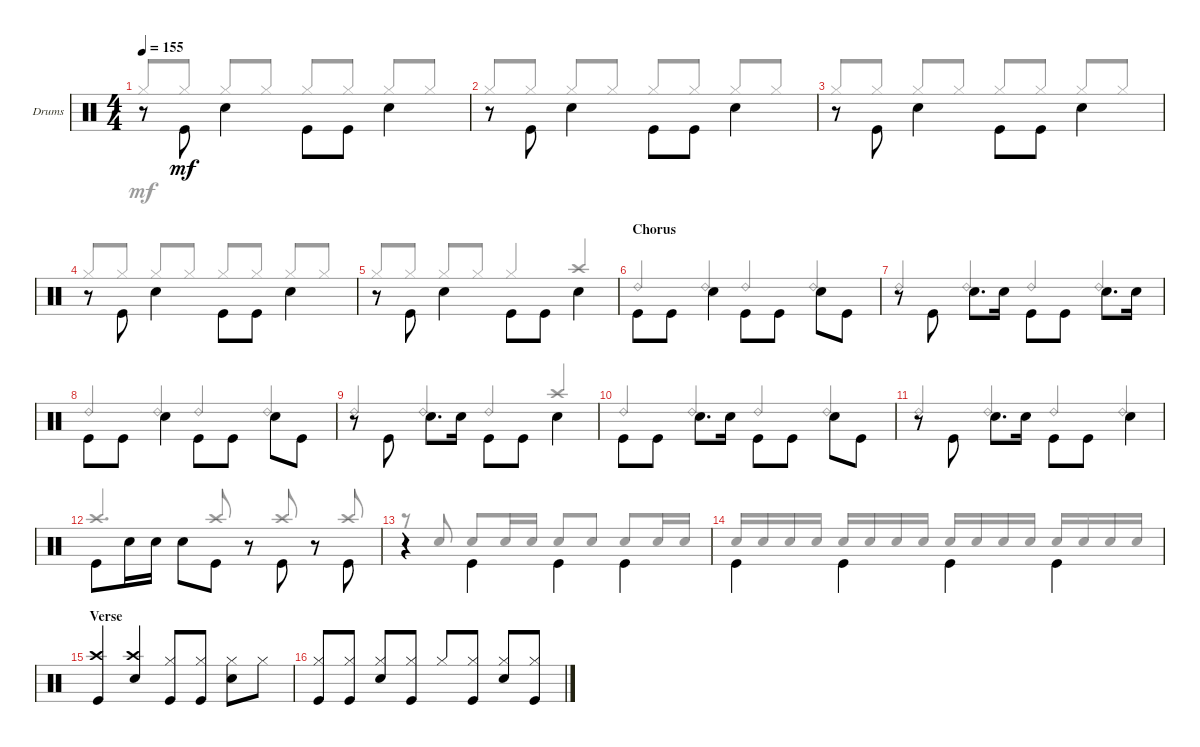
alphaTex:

\defaultSystemsLayout 4
\bracketExtendMode groupsimilarinstruments
\firstSystemTrackNameOrientation horizontal
\otherSystemsTrackNameOrientation horizontal
\track ("PETER CRISS" "Drums") {instrument percussion}
\staff {score}
\articulation defaults
\voice
\ts (4 4)
\tempo 155
\clef neutral
\ks c
r.8{dy mf} "Kick (hit)".8{beam invert} "Snare (hit) 2".4{beam invert} "Kick (hit)".8{beam invert} "Kick (hit)".8 "Snare (hit) 2".4{beam invert} |
r.8 "Kick (hit)".8{beam invert} "Snare (hit) 2".4{beam invert} "Kick (hit)".8{beam invert} "Kick (hit)".8 "Snare (hit) 2".4{beam invert} |
r.8 "Kick (hit)".8{beam invert} "Snare (hit) 2".4{beam invert} "Kick (hit)".8{beam invert} "Kick (hit)".8 "Snare (hit) 2".4{beam invert} |
r.8 "Kick (hit)".8{beam invert} "Snare (hit) 2".4{beam invert} "Kick (hit)".8{beam invert} "Kick (hit)".8 "Snare (hit) 2".4{beam invert} |
r.8 "Kick (hit)".8{beam invert} "Snare (hit) 2".4{beam invert} "Kick (hit)".8{beam invert} "Kick (hit)".8 "Snare (hit) 2".4{beam invert} |
\section ("" "Chorus")
"Kick (hit)".8{beam invert} "Kick (hit)".8 "Snare (hit) 2".4{beam invert} "Kick (hit)".8{beam invert} "Kick (hit)".8 "Snare (hit) 2".8{beam invert} "Kick (hit)".8 |
r.8 "Kick (hit)".8{beam invert} "Snare (hit) 2".8{d beam invert} "Snare (hit) 2".16 "Kick (hit)".8{beam invert} "Kick (hit)".8 "Snare (hit) 2".8{d beam invert} "Snare (hit) 2".16 |
"Kick (hit)".8{beam invert} "Kick (hit)".8 "Snare (hit) 2".4{beam invert} "Kick (hit)".8{beam invert} "Kick (hit)".8 "Snare (hit) 2".8{beam invert} "Kick (hit)".8 |
r.8 "Kick (hit)".8{beam invert} "Snare (hit) 2".8{d beam invert} "Snare (hit) 2".16 "Kick (hit)".8{beam invert} "Kick (hit)".8 "Snare (hit) 2".4{beam invert} |
"Kick (hit)".8{beam invert} "Kick (hit)".8 "Snare (hit) 2".8{d beam invert} "Snare (hit) 2".16 "Kick (hit)".8{beam invert} "Kick (hit)".8 "Snare (hit) 2".8{beam invert} "Kick (hit)".8 |
r.8 "Kick (hit)".8{beam invert} "Snare (hit) 2".8{d beam invert} "Snare (hit) 2".16 "Kick (hit)".8{beam invert} "Kick (hit)".8 "Snare (hit) 2".4{beam invert} |
"Kick (hit)".8{beam invert} "Snare (hit) 2".16 "Snare (hit) 2".16 "Snare (hit) 2".8{beam invert} "Kick (hit)".8 r.8 "Kick (hit)".8{beam invert} r.8 "Kick (hit)".8{beam invert} |
r.4 "Kick (hit)".4{beam invert} "Kick (hit)".4{beam invert} "Kick (hit)".4{beam invert} |
"Kick (hit)".4{beam invert} "Kick (hit)".4{beam invert} "Kick (hit)".4{beam invert} "Kick (hit)".4{beam invert} |
\section ("" "Verse")
("Kick (hit)" "Crash high (hit)").4{beam invert} ("Snare (hit) 2" "Crash high (hit)").4 ("Kick (hit)" "Hi-Hat (closed)").8{beam invert} ("Hi-Hat (closed)" "Kick (hit)").8 ("Snare (hit) 2" "Hi-Hat (closed)").8 "Hi-Hat (closed)".8 |
("Hi-Hat (closed)" "Kick (hit)").8{beam invert} ("Hi-Hat (closed)" "Kick (hit)").8 ("Hi-Hat (closed)" "Snare (hit) 2").8{beam invert} ("Hi-Hat (closed)" "Kick (hit)").8 "Hi-Hat (closed)".8{beam invert} ("Hi-Hat (closed)" "Kick (hit)").8 ("Hi-Hat (closed)" "Snare (hit) 2").8{beam invert} ("Hi-Hat (closed)" "Kick (hit)").8
\voice
\clef neutral
\ottava regular
\simile none
\ks c "Hi-Hat (closed)".8{dy mf beam invert} "Hi-Hat (closed)".8 "Hi-Hat (closed)".8{beam invert} "Hi-Hat (closed)".8 "Hi-Hat (closed)".8{beam invert} "Hi-Hat (closed)".8 "Hi-Hat (closed)".8{beam invert} "Hi-Hat (closed)".8
|
"Hi-Hat (closed)".8{beam invert} "Hi-Hat (closed)".8 "Hi-Hat (closed)".8{beam invert} "Hi-Hat (closed)".8 "Hi-Hat (closed)".8{beam invert} "Hi-Hat (closed)".8 "Hi-Hat (closed)".8{beam invert} "Hi-Hat (closed)".8 |
"Hi-Hat (closed)".8{beam invert} "Hi-Hat (closed)".8 "Hi-Hat (closed)".8{beam invert} "Hi-Hat (closed)".8 "Hi-Hat (closed)".8{beam invert} "Hi-Hat (closed)".8 "Hi-Hat (closed)".8{beam invert} "Hi-Hat (closed)".8 |
"Hi-Hat (closed)".8{beam invert} "Hi-Hat (closed)".8 "Hi-Hat (closed)".8{beam invert} "Hi-Hat (closed)".8 "Hi-Hat (closed)".8{beam invert} "Hi-Hat (closed)".8 "Hi-Hat (closed)".8{beam invert} "Hi-Hat (closed)".8 |
"Hi-Hat (closed)".8{beam invert} "Hi-Hat (closed)".8 "Hi-Hat (closed)".8{beam invert} "Hi-Hat (closed)".8 "Hi-Hat (closed)".4{beam invert} "Crash high (hit)".4{beam invert} |
"Ride (bell) 2".4{beam invert} "Ride (bell) 2".4{beam invert} "Ride (bell) 2".4{beam invert} "Ride (bell) 2".4{beam invert} |
"Ride (bell) 2".4{beam invert} "Ride (bell) 2".4{beam invert} "Ride (bell) 2".4{beam invert} "Ride (bell) 2".4{beam invert} |
"Ride (bell) 2".4{beam invert} "Ride (bell) 2".4{beam invert} "Ride (bell) 2".4{beam invert} "Ride (bell) 2".4{beam invert} |
"Ride (bell) 2".4{beam invert} "Ride (bell) 2".4{beam invert} "Ride (bell) 2".4{beam invert} "Crash high (hit)".4{beam invert} |
"Ride (bell) 2".4{beam invert} "Ride (bell) 2".4{beam invert} "Ride (bell) 2".4{beam invert} "Ride (bell) 2".4{beam invert} |
"Ride (bell) 2".4{beam invert} "Ride (bell) 2".4{beam invert} "Ride (bell) 2".4{beam invert} "Ride (bell) 2".4{beam invert} |
"Crash high (hit)".4{d beam invert} "Crash high (hit)".8{beam invert} r.8 "Crash high (hit)".8{beam invert} r.8 "Crash high (hit)".8{beam invert} |
r.8 "Snare (hit) 2".8{beam invert} "Snare (hit) 2".8{beam invert} "Snare (hit) 2".16 "Snare (hit) 2".16 "Snare (hit) 2".8{beam invert} "Snare (hit) 2".8 "Snare (hit) 2".8{beam invert} "Snare (hit) 2".16 "Snare (hit) 2".16 |
"Snare (hit) 2".16{beam invert} "Snare (hit) 2".16 "Snare (hit) 2".16 "Snare (hit) 2".16 "Snare (hit) 2".16 "Snare (hit) 2".16 "Snare (hit) 2".16{beam invert} "Snare (hit) 2".16 "Snare (hit) 2".16 "Snare (hit) 2".16 "Snare (hit) 2".16{beam invert} "Snare (hit) 2".16 "Snare (hit) 2".16 "Snare (hit) 2".16 "Snare (hit) 2".16{beam invert} "Snare (hit) 2".16 |
|
